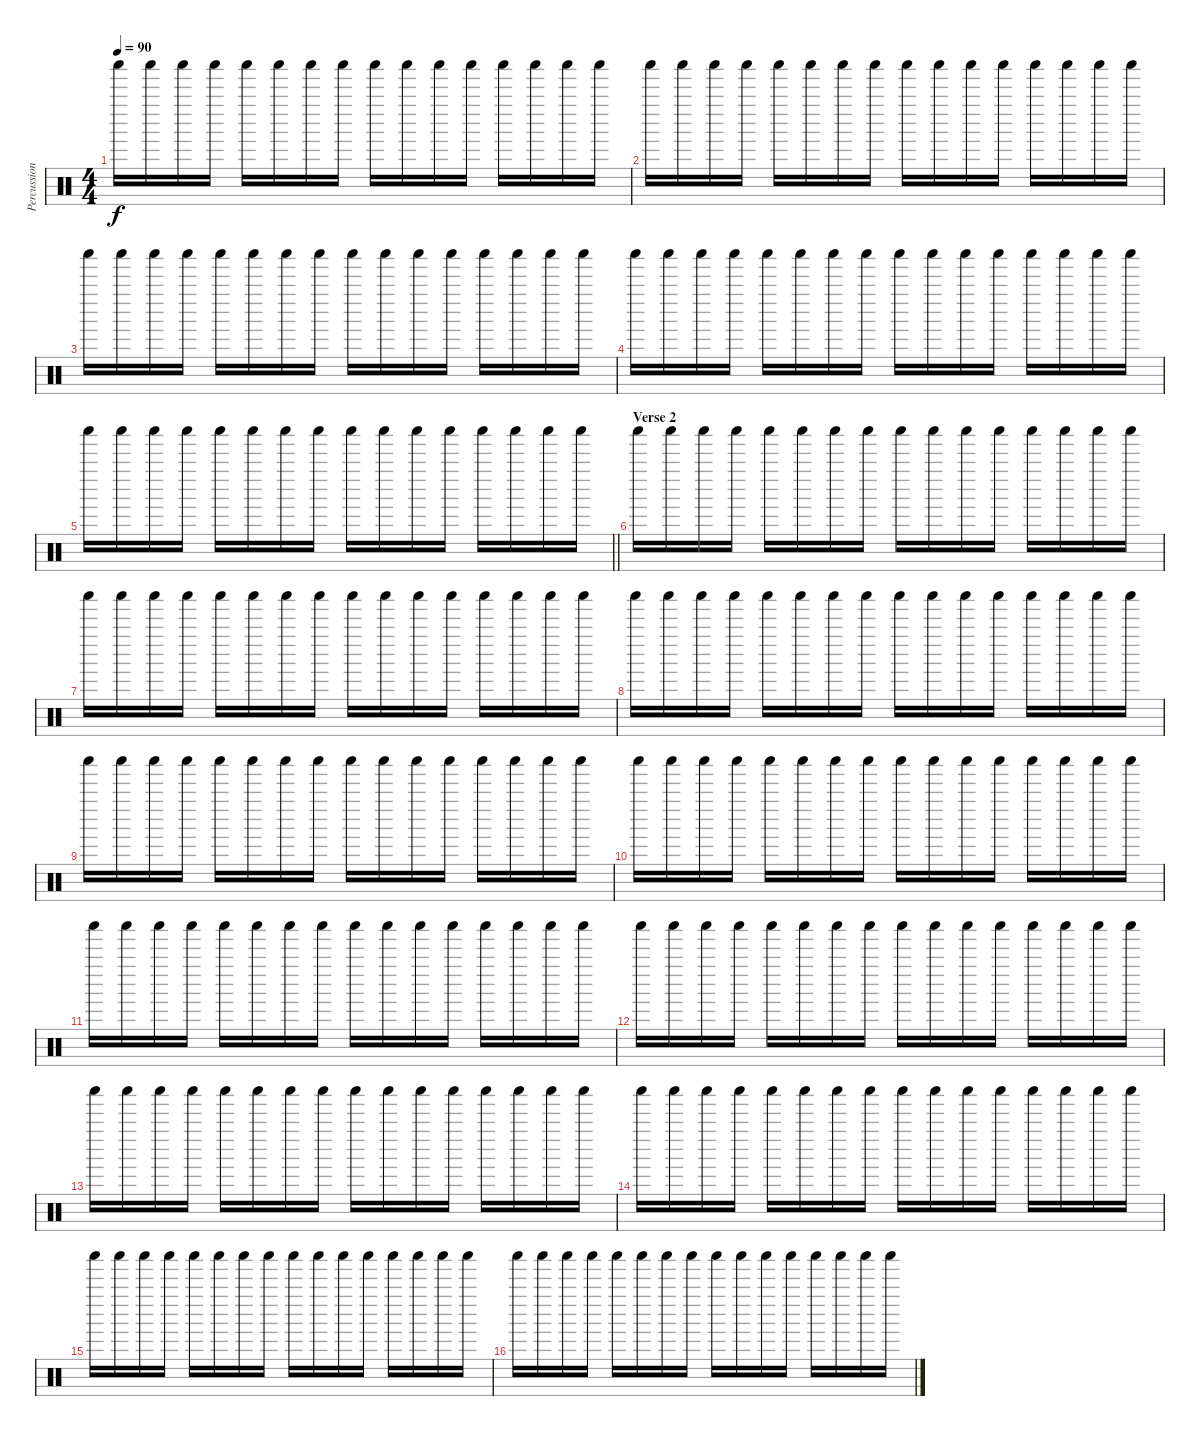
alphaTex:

\track ("Percussion" "Percussion") {instrument percussion}
\staff {score}
\articulation defaults
\ts (4 4)
\section ("" "")
\tempo 90
\clef neutral
\ks c "Shaker (hit)".16{dy f} "Shaker (hit)".16 "Shaker (hit)".16 "Shaker (hit)".16 "Shaker (hit)".16 "Shaker (hit)".16 "Shaker (hit)".16 "Shaker (hit)".16 "Shaker (hit)".16 "Shaker (hit)".16 "Shaker (hit)".16 "Shaker (hit)".16 "Shaker (hit)".16 "Shaker (hit)".16 "Shaker (hit)".16 "Shaker (hit)".16
|
"Shaker (hit)".16 "Shaker (hit)".16 "Shaker (hit)".16 "Shaker (hit)".16 "Shaker (hit)".16 "Shaker (hit)".16 "Shaker (hit)".16 "Shaker (hit)".16 "Shaker (hit)".16 "Shaker (hit)".16 "Shaker (hit)".16 "Shaker (hit)".16 "Shaker (hit)".16 "Shaker (hit)".16 "Shaker (hit)".16 "Shaker (hit)".16 |
"Shaker (hit)".16 "Shaker (hit)".16 "Shaker (hit)".16 "Shaker (hit)".16 "Shaker (hit)".16 "Shaker (hit)".16 "Shaker (hit)".16 "Shaker (hit)".16 "Shaker (hit)".16 "Shaker (hit)".16 "Shaker (hit)".16 "Shaker (hit)".16 "Shaker (hit)".16 "Shaker (hit)".16 "Shaker (hit)".16 "Shaker (hit)".16 |
"Shaker (hit)".16 "Shaker (hit)".16 "Shaker (hit)".16 "Shaker (hit)".16 "Shaker (hit)".16 "Shaker (hit)".16 "Shaker (hit)".16 "Shaker (hit)".16 "Shaker (hit)".16 "Shaker (hit)".16 "Shaker (hit)".16 "Shaker (hit)".16 "Shaker (hit)".16 "Shaker (hit)".16 "Shaker (hit)".16 "Shaker (hit)".16 |
\barLineRight lightlight "Shaker (hit)".16 "Shaker (hit)".16 "Shaker (hit)".16 "Shaker (hit)".16 "Shaker (hit)".16 "Shaker (hit)".16 "Shaker (hit)".16 "Shaker (hit)".16 "Shaker (hit)".16 "Shaker (hit)".16 "Shaker (hit)".16 "Shaker (hit)".16 "Shaker (hit)".16 "Shaker (hit)".16 "Shaker (hit)".16 "Shaker (hit)".16
|
\section ("" "Verse 2")
"Shaker (hit)".16 "Shaker (hit)".16 "Shaker (hit)".16 "Shaker (hit)".16 "Shaker (hit)".16 "Shaker (hit)".16 "Shaker (hit)".16 "Shaker (hit)".16 "Shaker (hit)".16 "Shaker (hit)".16 "Shaker (hit)".16 "Shaker (hit)".16 "Shaker (hit)".16 "Shaker (hit)".16 "Shaker (hit)".16 "Shaker (hit)".16 |
"Shaker (hit)".16 "Shaker (hit)".16 "Shaker (hit)".16 "Shaker (hit)".16 "Shaker (hit)".16 "Shaker (hit)".16 "Shaker (hit)".16 "Shaker (hit)".16 "Shaker (hit)".16 "Shaker (hit)".16 "Shaker (hit)".16 "Shaker (hit)".16 "Shaker (hit)".16 "Shaker (hit)".16 "Shaker (hit)".16 "Shaker (hit)".16 |
"Shaker (hit)".16 "Shaker (hit)".16 "Shaker (hit)".16 "Shaker (hit)".16 "Shaker (hit)".16 "Shaker (hit)".16 "Shaker (hit)".16 "Shaker (hit)".16 "Shaker (hit)".16 "Shaker (hit)".16 "Shaker (hit)".16 "Shaker (hit)".16 "Shaker (hit)".16 "Shaker (hit)".16 "Shaker (hit)".16 "Shaker (hit)".16 |
"Shaker (hit)".16 "Shaker (hit)".16 "Shaker (hit)".16 "Shaker (hit)".16 "Shaker (hit)".16 "Shaker (hit)".16 "Shaker (hit)".16 "Shaker (hit)".16 "Shaker (hit)".16 "Shaker (hit)".16 "Shaker (hit)".16 "Shaker (hit)".16 "Shaker (hit)".16 "Shaker (hit)".16 "Shaker (hit)".16 "Shaker (hit)".16 |
"Shaker (hit)".16 "Shaker (hit)".16 "Shaker (hit)".16 "Shaker (hit)".16 "Shaker (hit)".16 "Shaker (hit)".16 "Shaker (hit)".16 "Shaker (hit)".16 "Shaker (hit)".16 "Shaker (hit)".16 "Shaker (hit)".16 "Shaker (hit)".16 "Shaker (hit)".16 "Shaker (hit)".16 "Shaker (hit)".16 "Shaker (hit)".16 |
"Shaker (hit)".16 "Shaker (hit)".16 "Shaker (hit)".16 "Shaker (hit)".16 "Shaker (hit)".16 "Shaker (hit)".16 "Shaker (hit)".16 "Shaker (hit)".16 "Shaker (hit)".16 "Shaker (hit)".16 "Shaker (hit)".16 "Shaker (hit)".16 "Shaker (hit)".16 "Shaker (hit)".16 "Shaker (hit)".16 "Shaker (hit)".16 |
"Shaker (hit)".16 "Shaker (hit)".16 "Shaker (hit)".16 "Shaker (hit)".16 "Shaker (hit)".16 "Shaker (hit)".16 "Shaker (hit)".16 "Shaker (hit)".16 "Shaker (hit)".16 "Shaker (hit)".16 "Shaker (hit)".16 "Shaker (hit)".16 "Shaker (hit)".16 "Shaker (hit)".16 "Shaker (hit)".16 "Shaker (hit)".16 |
"Shaker (hit)".16 "Shaker (hit)".16 "Shaker (hit)".16 "Shaker (hit)".16 "Shaker (hit)".16 "Shaker (hit)".16 "Shaker (hit)".16 "Shaker (hit)".16 "Shaker (hit)".16 "Shaker (hit)".16 "Shaker (hit)".16 "Shaker (hit)".16 "Shaker (hit)".16 "Shaker (hit)".16 "Shaker (hit)".16 "Shaker (hit)".16 |
"Shaker (hit)".16 "Shaker (hit)".16 "Shaker (hit)".16 "Shaker (hit)".16 "Shaker (hit)".16 "Shaker (hit)".16 "Shaker (hit)".16 "Shaker (hit)".16 "Shaker (hit)".16 "Shaker (hit)".16 "Shaker (hit)".16 "Shaker (hit)".16 "Shaker (hit)".16 "Shaker (hit)".16 "Shaker (hit)".16 "Shaker (hit)".16 |
"Shaker (hit)".16 "Shaker (hit)".16 "Shaker (hit)".16 "Shaker (hit)".16 "Shaker (hit)".16 "Shaker (hit)".16 "Shaker (hit)".16 "Shaker (hit)".16 "Shaker (hit)".16 "Shaker (hit)".16 "Shaker (hit)".16 "Shaker (hit)".16 "Shaker (hit)".16 "Shaker (hit)".16 "Shaker (hit)".16 "Shaker (hit)".16 |
"Shaker (hit)".16 "Shaker (hit)".16 "Shaker (hit)".16 "Shaker (hit)".16 "Shaker (hit)".16 "Shaker (hit)".16 "Shaker (hit)".16 "Shaker (hit)".16 "Shaker (hit)".16 "Shaker (hit)".16 "Shaker (hit)".16 "Shaker (hit)".16 "Shaker (hit)".16 "Shaker (hit)".16 "Shaker (hit)".16 "Shaker (hit)".16
